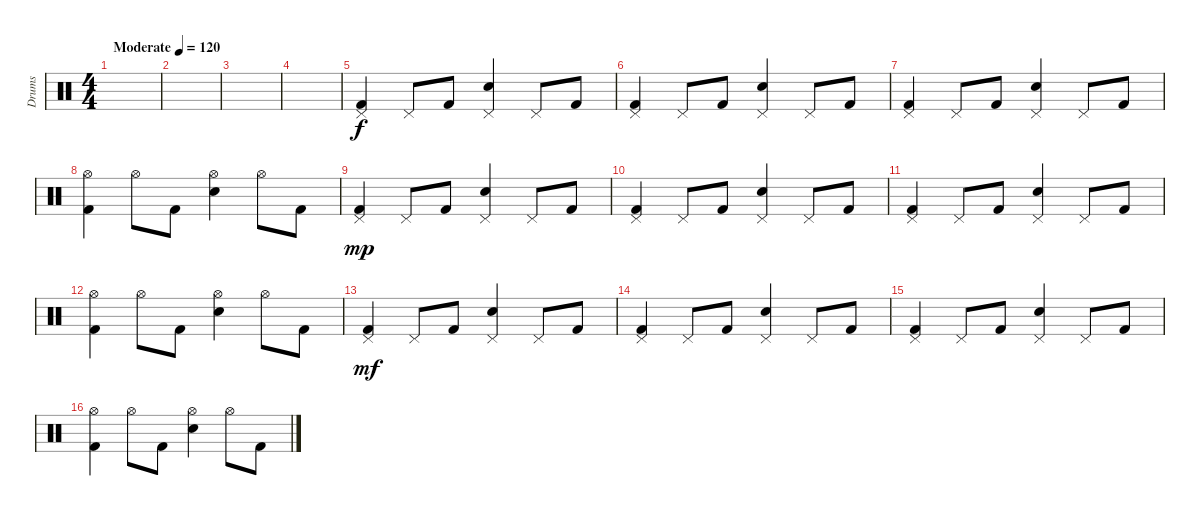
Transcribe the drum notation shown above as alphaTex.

\track ("Drums" "Drums") {instrument percussion bank 255}
\staff {score}
\articulation defaults
\ts (4 4)
\tempo (120 "Moderate")
\clef neutral
\ks c
|
|
|
|
("Pedal Hi-Hat (hit)" "Kick (hit) 2").4 "Pedal Hi-Hat (hit)".8 "Kick (hit) 2".8 ("Pedal Hi-Hat (hit)" "Electric Snare (hit)").4 "Pedal Hi-Hat (hit)".8 "Kick (hit) 2".8 |
("Pedal Hi-Hat (hit)" "Kick (hit) 2").4 "Pedal Hi-Hat (hit)".8 "Kick (hit) 2".8 ("Pedal Hi-Hat (hit)" "Electric Snare (hit)").4 "Pedal Hi-Hat (hit)".8 "Kick (hit) 2".8 |
("Pedal Hi-Hat (hit)" "Kick (hit) 2").4 "Pedal Hi-Hat (hit)".8 "Kick (hit) 2".8 ("Pedal Hi-Hat (hit)" "Electric Snare (hit)").4 "Pedal Hi-Hat (hit)".8 "Kick (hit) 2".8 |
("Hi-Hat (open)" "Kick (hit) 2").4 "Hi-Hat (open)".8 "Kick (hit) 2".8 ("Hi-Hat (open)" "Electric Snare (hit)").4 "Hi-Hat (open)".8 "Kick (hit) 2".8 |
("Pedal Hi-Hat (hit)" "Kick (hit) 2").4{dy mp} "Pedal Hi-Hat (hit)".8 "Kick (hit) 2".8 ("Pedal Hi-Hat (hit)" "Electric Snare (hit)").4 "Pedal Hi-Hat (hit)".8 "Kick (hit) 2".8 |
("Pedal Hi-Hat (hit)" "Kick (hit) 2").4 "Pedal Hi-Hat (hit)".8 "Kick (hit) 2".8 ("Pedal Hi-Hat (hit)" "Electric Snare (hit)").4 "Pedal Hi-Hat (hit)".8 "Kick (hit) 2".8 |
("Pedal Hi-Hat (hit)" "Kick (hit) 2").4 "Pedal Hi-Hat (hit)".8 "Kick (hit) 2".8 ("Pedal Hi-Hat (hit)" "Electric Snare (hit)").4 "Pedal Hi-Hat (hit)".8 "Kick (hit) 2".8 |
("Hi-Hat (open)" "Kick (hit) 2").4 "Hi-Hat (open)".8 "Kick (hit) 2".8 ("Hi-Hat (open)" "Electric Snare (hit)").4 "Hi-Hat (open)".8 "Kick (hit) 2".8 |
("Pedal Hi-Hat (hit)" "Kick (hit) 2").4{dy mf} "Pedal Hi-Hat (hit)".8 "Kick (hit) 2".8 ("Pedal Hi-Hat (hit)" "Electric Snare (hit)").4 "Pedal Hi-Hat (hit)".8 "Kick (hit) 2".8 |
("Pedal Hi-Hat (hit)" "Kick (hit) 2").4 "Pedal Hi-Hat (hit)".8 "Kick (hit) 2".8 ("Pedal Hi-Hat (hit)" "Electric Snare (hit)").4 "Pedal Hi-Hat (hit)".8 "Kick (hit) 2".8 |
("Pedal Hi-Hat (hit)" "Kick (hit) 2").4 "Pedal Hi-Hat (hit)".8 "Kick (hit) 2".8 ("Pedal Hi-Hat (hit)" "Electric Snare (hit)").4 "Pedal Hi-Hat (hit)".8 "Kick (hit) 2".8 |
("Hi-Hat (open)" "Kick (hit) 2").4 "Hi-Hat (open)".8 "Kick (hit) 2".8 ("Hi-Hat (open)" "Electric Snare (hit)").4 "Hi-Hat (open)".8 "Kick (hit) 2".8
